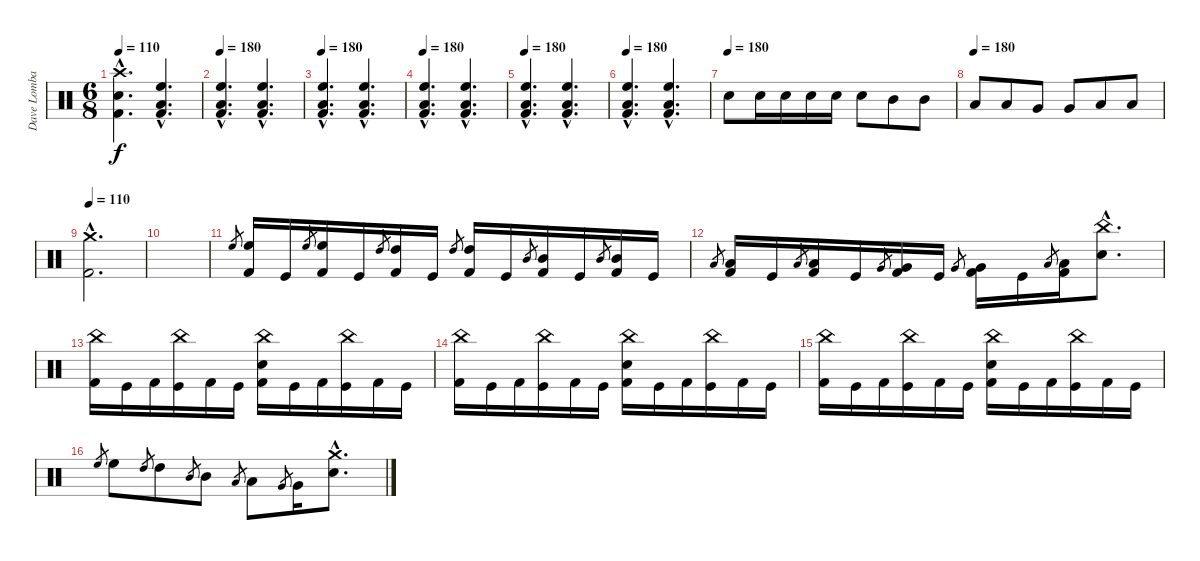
\track ("Dave Lombardo (drums)" "Dave Lomba") {instrument percussion}
\staff {score}
\articulation defaults
\ts (6 8)
\tempo 110
\tempo 180
\tempo 110
\clef neutral
\ks c
("Crash high (hit)"{hac} "Snare (hit) 2"{hac} "Kick (hit) 2"{hac}).4{d dy f} ("High Floor Tom (hit)"{hac} "Low Floor Tom (hit)"{hac} "Kick (hit) 2"{hac}).4{d} |
\tempo 180
("High Floor Tom (hit)"{hac} "Low Floor Tom (hit)"{hac} "Kick (hit) 2"{hac}).4{d} ("High Floor Tom (hit)"{hac} "Low Floor Tom (hit)"{hac} "Kick (hit) 2"{hac}).4{d} |
\tempo 180
("High Floor Tom (hit)"{hac} "Low Floor Tom (hit)"{hac} "Kick (hit) 2"{hac}).4{d} ("High Floor Tom (hit)"{hac} "Low Floor Tom (hit)"{hac} "Kick (hit) 2"{hac}).4{d} |
\tempo 180
("High Floor Tom (hit)"{hac} "Low Floor Tom (hit)"{hac} "Kick (hit) 2"{hac}).4{d} ("High Floor Tom (hit)"{hac} "Low Floor Tom (hit)"{hac} "Kick (hit) 2"{hac}).4{d} |
\tempo 180
("High Floor Tom (hit)"{hac} "Low Floor Tom (hit)"{hac} "Kick (hit) 2"{hac}).4{d} ("High Floor Tom (hit)"{hac} "Low Floor Tom (hit)"{hac} "Kick (hit) 2"{hac}).4{d} |
\tempo 180
("High Floor Tom (hit)"{hac} "Low Floor Tom (hit)"{hac} "Kick (hit) 2"{hac}).4{d} ("High Floor Tom (hit)"{hac} "Low Floor Tom (hit)"{hac} "Kick (hit) 2"{hac}).4{d} |
\tempo (180)
"Snare (hit) 2".8 "Snare (hit) 2".16 "Snare (hit) 2".16 "Snare (hit) 2".16 "Snare (hit) 2".16 "Snare (hit) 2".8 "Mid Tom (hit)".8 "Mid Tom (hit)".8 |
\tempo (180)
"Low Tom (hit)".8 "Low Tom (hit)".8 "Very Low Tom (hit)".8 "Very Low Tom (hit)".8 "Low Floor Tom (hit)".8 "Low Floor Tom (hit)".8 |
\tempo 110
("Crash medium (hit)"{hac} "Kick (hit) 2"{hac}).2{d} |
|
"High Floor Tom (hit)".8{gr} ("High Floor Tom (hit)" "Kick (hit) 2").16 "Kick (hit)".16 "High Floor Tom (hit)".8{gr} ("High Floor Tom (hit)" "Kick (hit) 2").16 "Kick (hit)".16 "High Tom (hit)".8{gr} ("High Tom (hit)" "Kick (hit) 2").16 "Kick (hit)".16 "High Tom (hit)".8{gr} ("High Tom (hit)" "Kick (hit) 2").16 "Kick (hit)".16 "Mid Tom (hit)".8{gr} ("Mid Tom (hit)" "Kick (hit) 2").16 "Kick (hit)".16 "Mid Tom (hit)".8{gr} ("Mid Tom (hit)" "Kick (hit) 2").16 "Kick (hit)".16 |
"Low Tom (hit)".8{gr} ("Low Tom (hit)" "Kick (hit) 2").16 "Kick (hit)".16 "Low Tom (hit)".8{gr} ("Low Tom (hit)" "Kick (hit) 2").16 "Kick (hit)".16 "Very Low Tom (hit)".8{gr} ("Very Low Tom (hit)" "Kick (hit) 2").16 "Kick (hit)".16 "Very Low Tom (hit)".8{gr} ("Very Low Tom (hit)" "Kick (hit) 2").16 "Kick (hit)".16 "Low Floor Tom (hit)".8{gr} ("Low Floor Tom (hit)" "Kick (hit) 2").16 ("China (hit)"{hac} "Snare (hit) 2"{hac}).8{d} |
("China (hit)" "Kick (hit) 2").16 "Kick (hit)".16 "Kick (hit) 2".16 ("China (hit)" "Kick (hit)").16 "Kick (hit) 2".16 "Kick (hit)".16 ("China (hit)" "Snare (hit) 2" "Kick (hit) 2").16 "Kick (hit)".16 "Kick (hit) 2".16 ("China (hit)" "Kick (hit)").16 "Kick (hit) 2".16 "Kick (hit)".16 |
("China (hit)" "Kick (hit) 2").16 "Kick (hit)".16 "Kick (hit) 2".16 ("China (hit)" "Kick (hit)").16 "Kick (hit) 2".16 "Kick (hit)".16 ("China (hit)" "Snare (hit) 2" "Kick (hit) 2").16 "Kick (hit)".16 "Kick (hit) 2".16 ("China (hit)" "Kick (hit)").16 "Kick (hit) 2".16 "Kick (hit)".16 |
("China (hit)" "Kick (hit) 2").16 "Kick (hit)".16 "Kick (hit) 2".16 ("China (hit)" "Kick (hit)").16 "Kick (hit) 2".16 "Kick (hit)".16 ("China (hit)" "Snare (hit) 2" "Kick (hit) 2").16 "Kick (hit)".16 "Kick (hit) 2".16 ("China (hit)" "Kick (hit)").16 "Kick (hit) 2".16 "Kick (hit)".16 |
"High Floor Tom (hit)".8{gr} "High Floor Tom (hit)".8 "High Tom (hit)".8{gr} "High Tom (hit)".8 "Mid Tom (hit)".8{gr} "Mid Tom (hit)".8 "Low Tom (hit)".8{gr} "Low Tom (hit)".8 "Very Low Tom (hit)".8{gr} "Very Low Tom (hit)".16 ("Crash medium (hit)"{hac} "Snare (hit) 2"{hac}).8{d}
